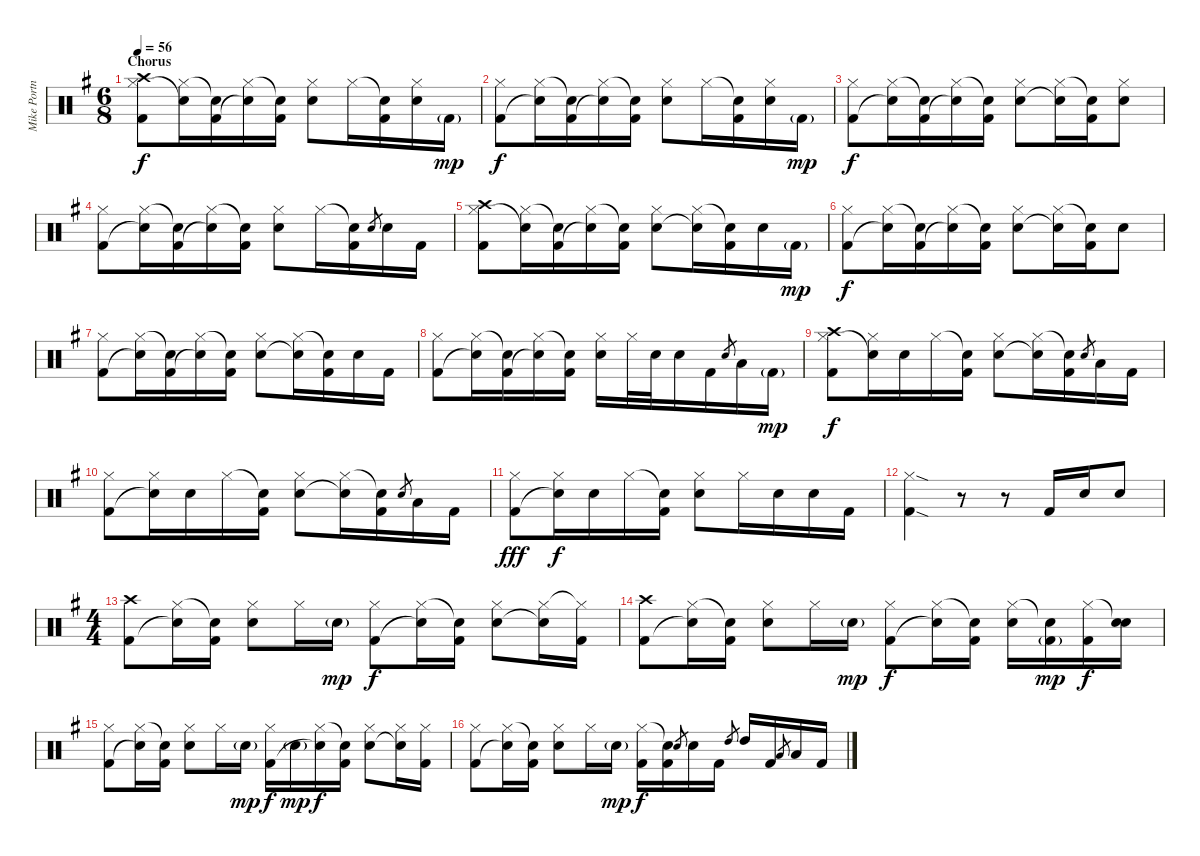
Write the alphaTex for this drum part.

\track ("Mike Portnoy" "Mike Portn") {instrument percussion}
\staff {score}
\articulation defaults
\ts (6 8)
\section ("" "Chorus")
\tempo 56
\clef neutral
\ks g
("Crash high (hit)" "Hi-Hat (closed)" "Kick (hit) 2").8{dy f} ("Hi-Hat (closed)" "Snare (hit)"{t}).16 ("Snare (hit)"{t} "Kick (hit) 2").16 ("Hi-Hat (closed)" "Snare (hit)"{t}).16 ("Snare (hit)"{t} "Kick (hit) 2").16 ("Hi-Hat (closed)" "Snare (hit) 2").8 "Hi-Hat (closed)".16 ("Snare (hit)"{t} "Kick (hit) 2").16 ("Hi-Hat (closed)" "Snare (hit) 2").16 "Kick (hit) 2"{g}.16{dy mp} |
("Hi-Hat (closed)" "Kick (hit) 2").8{dy f} ("Hi-Hat (closed)" "Snare (hit)"{t}).16 ("Snare (hit)"{t} "Kick (hit) 2").16 ("Hi-Hat (closed)" "Snare (hit)"{t}).16 ("Snare (hit)"{t} "Kick (hit) 2").16 ("Hi-Hat (closed)" "Snare (hit) 2").8 "Hi-Hat (closed)".16 ("Snare (hit)"{t} "Kick (hit) 2").16 ("Hi-Hat (closed)" "Snare (hit) 2").16 "Kick (hit) 2"{g}.16{dy mp} |
("Hi-Hat (closed)" "Kick (hit) 2").8{dy f} ("Hi-Hat (closed)" "Snare (hit)"{t}).16 ("Snare (hit)"{t} "Kick (hit) 2").16 ("Hi-Hat (closed)" "Snare (hit)"{t}).16 ("Snare (hit)"{t} "Kick (hit) 2").16 ("Hi-Hat (closed)" "Snare (hit) 2").8 ("Hi-Hat (closed)" "Snare (hit)"{t}).16 ("Snare (hit)"{t} "Kick (hit) 2").16 ("Hi-Hat (closed)" "Snare (hit) 2").8 |
("Hi-Hat (closed)" "Kick (hit) 2").8 ("Hi-Hat (closed)" "Snare (hit)"{t}).16 ("Snare (hit)"{t} "Kick (hit) 2").16 ("Hi-Hat (closed)" "Snare (hit)"{t}).16 ("Snare (hit)"{t} "Kick (hit) 2").16 ("Hi-Hat (closed)" "Snare (hit) 2").8 "Hi-Hat (closed)".16 ("Snare (hit)"{t} "Kick (hit) 2").16 "Snare (hit) 2".8{gr} "Snare (hit) 2".16 "Kick (hit) 2".16 |
("Crash high (hit)" "Hi-Hat (closed)" "Kick (hit) 2").8 ("Hi-Hat (closed)" "Snare (hit)"{t}).16 ("Snare (hit)"{t} "Kick (hit) 2").16 ("Hi-Hat (closed)" "Snare (hit)"{t}).16 ("Snare (hit)"{t} "Kick (hit) 2").16 ("Hi-Hat (closed)" "Snare (hit) 2").8 ("Hi-Hat (closed)" "Snare (hit)"{t}).16 ("Snare (hit)"{t} "Kick (hit) 2").16 "Snare (hit) 2".16 "Kick (hit) 2"{g}.16{dy mp} |
("Hi-Hat (closed)" "Kick (hit) 2").8{dy f} ("Hi-Hat (closed)" "Snare (hit)"{t}).16 ("Snare (hit)"{t} "Kick (hit) 2").16 ("Hi-Hat (closed)" "Snare (hit)"{t}).16 ("Snare (hit)"{t} "Kick (hit) 2").16 ("Hi-Hat (closed)" "Snare (hit) 2").8 ("Hi-Hat (closed)" "Snare (hit)"{t}).16 ("Snare (hit)"{t} "Kick (hit) 2").16 "Snare (hit) 2".8 |
("Hi-Hat (closed)" "Kick (hit) 2").8 ("Hi-Hat (closed)" "Snare (hit)"{t}).16 ("Snare (hit)"{t} "Kick (hit) 2").16 ("Hi-Hat (closed)" "Snare (hit)"{t}).16 ("Snare (hit)"{t} "Kick (hit) 2").16 ("Hi-Hat (closed)" "Snare (hit) 2").8 ("Hi-Hat (closed)" "Snare (hit)"{t}).16 ("Snare (hit)"{t} "Kick (hit) 2").16 "Snare (hit) 2".16 "Kick (hit) 2".16 |
("Hi-Hat (closed)" "Kick (hit) 2").8 ("Hi-Hat (closed)" "Snare (hit)"{t}).16 ("Snare (hit)"{t} "Kick (hit) 2").16 ("Hi-Hat (closed)" "Snare (hit)"{t}).16 ("Snare (hit)"{t} "Kick (hit) 2").16 ("Hi-Hat (closed)" "Snare (hit) 2").16 "Hi-Hat (closed)".32 "Snare (hit) 2".32 "Snare (hit) 2".16 "Kick (hit) 2".16 "Snare (hit) 2".8{gr} "Low Tom (hit)".16 "Kick (hit) 2"{g}.16{dy mp} |
("Crash high (hit)" "Hi-Hat (closed)" "Kick (hit) 2").8{dy f} ("Hi-Hat (closed)" "Snare (hit)"{t}).16 "Snare (hit) 2".16 "Hi-Hat (closed)".16 ("Snare (hit)"{t} "Kick (hit) 2").16 ("Hi-Hat (closed)" "Snare (hit) 2").8 ("Hi-Hat (closed)" "Snare (hit)"{t}).16 ("Snare (hit)"{t} "Kick (hit) 2").16 "Snare (hit) 2".8{gr} "Low Tom (hit)".16 "Kick (hit) 2".16 |
("Hi-Hat (closed)" "Kick (hit) 2").8 ("Hi-Hat (closed)" "Snare (hit)"{t}).16 "Snare (hit) 2".16 "Hi-Hat (closed)".16 ("Snare (hit)"{t} "Kick (hit) 2").16 ("Hi-Hat (closed)" "Snare (hit) 2").8 ("Hi-Hat (closed)" "Snare (hit)"{t}).16 ("Snare (hit)"{t} "Kick (hit) 2").16 "Snare (hit) 2".8{gr} "Low Tom (hit)".16 "Kick (hit) 2".16 |
("Hi-Hat (closed)" "Kick (hit) 2").8{dy fff} ("Hi-Hat (closed)" "Snare (hit)"{t}).16{dy f} "Snare (hit) 2".16 "Hi-Hat (closed)".16 ("Snare (hit)"{t} "Kick (hit) 2").16 ("Hi-Hat (closed)" "Snare (hit) 2").8 "Hi-Hat (closed)".16 "Snare (hit) 2".16 "Snare (hit) 2".16 "Kick (hit) 2".16 |
("Hi-Hat (closed)"{sod} "Kick (hit) 2"{sod}).4 r.8 r.8 "Kick (hit) 2".16 "Snare (hit) 2".16 "Snare (hit) 2".8 |
\ts (4 4)
("Crash high (hit)" "Kick (hit) 2").8 ("Hi-Hat (closed)" "Snare (hit)"{t}).16 ("Snare (hit)"{t} "Kick (hit) 2").16 ("Hi-Hat (closed)" "Snare (hit) 2").8 "Hi-Hat (closed)".16 "Snare (hit) 2"{g}.16{dy mp} ("Hi-Hat (closed)" "Kick (hit) 2").8{dy f} ("Hi-Hat (closed)" "Snare (hit)"{t}).16 ("Snare (hit)"{t} "Kick (hit) 2").16 ("Hi-Hat (closed)" "Snare (hit) 2").8 ("Hi-Hat (closed)" "Snare (hit)"{t}).16 ("Hi-Hat (closed)"{t} "Kick (hit) 2").16 |
("Crash high (hit)" "Kick (hit) 2").8 ("Hi-Hat (closed)" "Snare (hit)"{t}).16 ("Snare (hit)"{t} "Kick (hit) 2").16 ("Hi-Hat (closed)" "Snare (hit) 2").8 "Hi-Hat (closed)".16 "Snare (hit) 2"{g}.16{dy mp} ("Hi-Hat (closed)" "Kick (hit) 2").8{dy f} ("Hi-Hat (closed)" "Snare (hit)"{t}).16 ("Snare (hit)"{t} "Kick (hit) 2").16 ("Hi-Hat (closed)" "Snare (hit) 2").16 ("Snare (hit)"{t} "Kick (hit) 2"{g}).16{dy mp} ("Hi-Hat (closed)" "Kick (hit) 2").16{dy f} ("Snare (hit)"{t} "Snare (hit) 2").16 |
("Hi-Hat (closed)" "Kick (hit) 2").8 ("Hi-Hat (closed)" "Snare (hit)"{t}).16 ("Snare (hit)"{t} "Kick (hit) 2").16 ("Hi-Hat (closed)" "Snare (hit) 2").8 "Hi-Hat (closed)".16 "Snare (hit) 2"{g}.16{dy mp} ("Hi-Hat (closed)" "Kick (hit) 2").16{dy f} "Snare (hit) 2"{g}.16{dy mp} ("Hi-Hat (closed)" "Snare (hit)"{t}).16{dy f} ("Snare (hit)"{t} "Kick (hit) 2").16 ("Hi-Hat (closed)" "Snare (hit) 2").8 ("Hi-Hat (closed)" "Snare (hit)"{t}).16 ("Hi-Hat (closed)" "Kick (hit) 2").16 |
("Hi-Hat (closed)" "Kick (hit) 2").8 ("Hi-Hat (closed)" "Snare (hit)"{t}).16 ("Snare (hit)"{t} "Kick (hit) 2").16 ("Hi-Hat (closed)" "Snare (hit) 2").8 "Hi-Hat (closed)".16 "Snare (hit) 2"{g}.16{dy mp} ("Hi-Hat (closed)" "Kick (hit) 2").16{dy f} ("Snare (hit)"{t} "Kick (hit) 2").16 "Snare (hit) 2".8{gr} "Snare (hit) 2".16 "Kick (hit) 2".16 "High Tom (hit)".8{gr} "High Tom (hit)".16 "Kick (hit) 2".16 "Low Tom (hit)".8{gr} "Low Tom (hit)".16 "Kick (hit) 2".16
